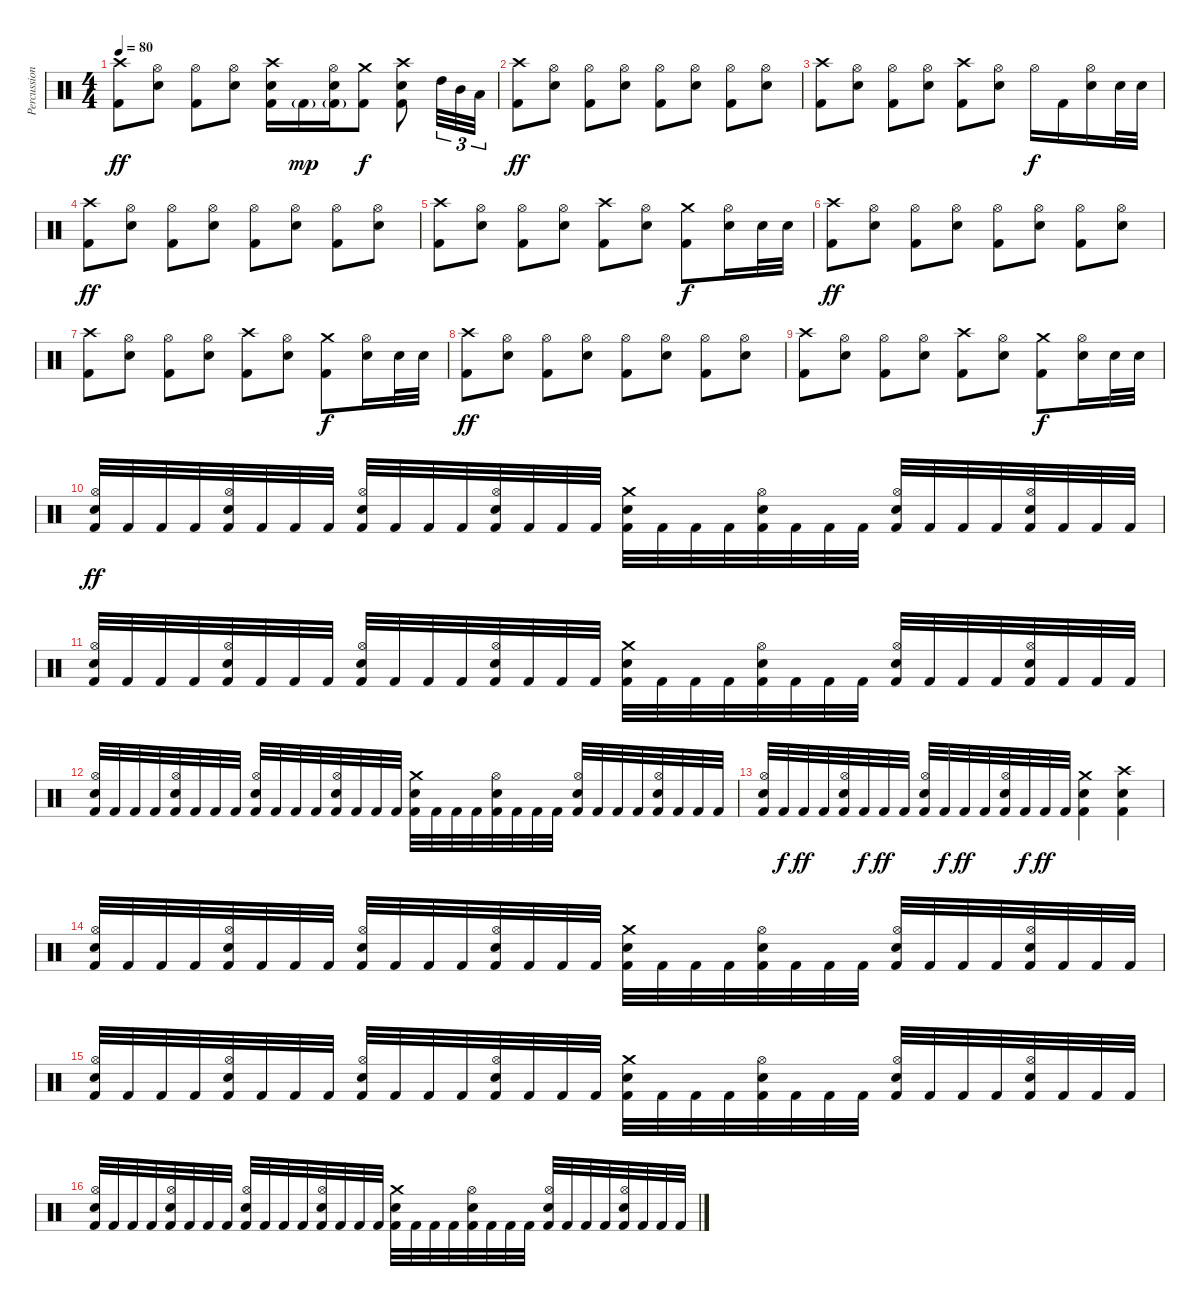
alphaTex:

\track ("Percussion" "Percussion") {instrument percussion}
\staff {score}
\articulation defaults
\ts (4 4)
\tempo 80
\clef neutral
\ks c
("Crash high (hit)" "Kick (hit) 2").8{dy ff} ("Hi-Hat (open)" "Snare (hit) 2").8 ("Hi-Hat (open)" "Kick (hit) 2").8 ("Hi-Hat (open)" "Snare (hit) 2").8 ("Crash high (hit)" "Snare (hit) 2" "Kick (hit) 2").16 "Kick (hit) 2"{g}.16{dy mp} ("Hi-Hat (open)" "Snare (hit) 2" "Kick (hit) 2"{g}).16 ("Crash medium (hit)" "Kick (hit) 2").8{dy f} ("Crash high (hit)" "Snare (hit) 2" "Kick (hit) 2").8 "High Tom (hit)".32{tu (3 2)} "Mid Tom (hit)".32{tu (3 2)} "Low Tom (hit)".32{tu (3 2)} |
("Crash high (hit)" "Kick (hit) 2").8{dy ff} ("Hi-Hat (open)" "Snare (hit) 2").8 ("Hi-Hat (open)" "Kick (hit) 2").8 ("Hi-Hat (open)" "Snare (hit) 2").8 ("Hi-Hat (open)" "Kick (hit) 2").8 ("Hi-Hat (open)" "Snare (hit) 2").8 ("Hi-Hat (open)" "Kick (hit) 2").8 ("Hi-Hat (open)" "Snare (hit) 2").8 |
("Crash high (hit)" "Kick (hit) 2").8 ("Hi-Hat (open)" "Snare (hit) 2").8 ("Hi-Hat (open)" "Kick (hit) 2").8 ("Hi-Hat (open)" "Snare (hit) 2").8 ("Crash high (hit)" "Kick (hit) 2").8 ("Hi-Hat (open)" "Snare (hit) 2").8 "Hi-Hat (open)".16{dy f} "Kick (hit) 2".16 ("Hi-Hat (open)" "Snare (hit) 2").16 "Snare (hit) 2".32 "Snare (hit) 2".32 |
("Crash high (hit)" "Kick (hit) 2").8{dy ff} ("Hi-Hat (open)" "Snare (hit) 2").8 ("Hi-Hat (open)" "Kick (hit) 2").8 ("Hi-Hat (open)" "Snare (hit) 2").8 ("Hi-Hat (open)" "Kick (hit) 2").8 ("Hi-Hat (open)" "Snare (hit) 2").8 ("Hi-Hat (open)" "Kick (hit) 2").8 ("Hi-Hat (open)" "Snare (hit) 2").8 |
("Crash high (hit)" "Kick (hit) 2").8 ("Hi-Hat (open)" "Snare (hit) 2").8 ("Hi-Hat (open)" "Kick (hit) 2").8 ("Hi-Hat (open)" "Snare (hit) 2").8 ("Crash high (hit)" "Kick (hit) 2").8 ("Hi-Hat (open)" "Snare (hit) 2").8 ("Crash medium (hit)" "Kick (hit) 2").8{dy f} ("Hi-Hat (open)" "Snare (hit) 2").16 "Snare (hit) 2".32 "Snare (hit) 2".32 |
("Crash high (hit)" "Kick (hit) 2").8{dy ff} ("Hi-Hat (open)" "Snare (hit) 2").8 ("Hi-Hat (open)" "Kick (hit) 2").8 ("Hi-Hat (open)" "Snare (hit) 2").8 ("Hi-Hat (open)" "Kick (hit) 2").8 ("Hi-Hat (open)" "Snare (hit) 2").8 ("Hi-Hat (open)" "Kick (hit) 2").8 ("Hi-Hat (open)" "Snare (hit) 2").8 |
("Crash high (hit)" "Kick (hit) 2").8 ("Hi-Hat (open)" "Snare (hit) 2").8 ("Hi-Hat (open)" "Kick (hit) 2").8 ("Hi-Hat (open)" "Snare (hit) 2").8 ("Crash high (hit)" "Kick (hit) 2").8 ("Hi-Hat (open)" "Snare (hit) 2").8 ("Crash medium (hit)" "Kick (hit) 2").8{dy f} ("Hi-Hat (open)" "Snare (hit) 2").16 "Snare (hit) 2".32 "Snare (hit) 2".32 |
("Crash high (hit)" "Kick (hit) 2").8{dy ff} ("Hi-Hat (open)" "Snare (hit) 2").8 ("Hi-Hat (open)" "Kick (hit) 2").8 ("Hi-Hat (open)" "Snare (hit) 2").8 ("Hi-Hat (open)" "Kick (hit) 2").8 ("Hi-Hat (open)" "Snare (hit) 2").8 ("Hi-Hat (open)" "Kick (hit) 2").8 ("Hi-Hat (open)" "Snare (hit) 2").8 |
("Crash high (hit)" "Kick (hit) 2").8 ("Hi-Hat (open)" "Snare (hit) 2").8 ("Hi-Hat (open)" "Kick (hit) 2").8 ("Hi-Hat (open)" "Snare (hit) 2").8 ("Crash high (hit)" "Kick (hit) 2").8 ("Hi-Hat (open)" "Snare (hit) 2").8 ("Crash medium (hit)" "Kick (hit) 2").8{dy f} ("Hi-Hat (open)" "Snare (hit) 2").16 "Snare (hit) 2".32 "Snare (hit) 2".32 |
("Hi-Hat (open)" "Snare (hit) 2" "Kick (hit) 2").32{dy ff volume 14} "Kick (hit) 2".32 "Kick (hit) 2".32 "Kick (hit) 2".32 ("Hi-Hat (open)" "Snare (hit) 2" "Kick (hit) 2").32 "Kick (hit) 2".32 "Kick (hit) 2".32 "Kick (hit) 2".32 ("Hi-Hat (open)" "Snare (hit) 2" "Kick (hit) 2").32 "Kick (hit) 2".32 "Kick (hit) 2".32 "Kick (hit) 2".32 ("Hi-Hat (open)" "Snare (hit) 2" "Kick (hit) 2").32 "Kick (hit) 2".32 "Kick (hit) 2".32 "Kick (hit) 2".32 ("Crash medium (hit)" "Snare (hit) 2" "Kick (hit) 2").32 "Kick (hit) 2".32 "Kick (hit) 2".32 "Kick (hit) 2".32 ("Hi-Hat (open)" "Snare (hit) 2" "Kick (hit) 2").32 "Kick (hit) 2".32 "Kick (hit) 2".32 "Kick (hit) 2".32 ("Hi-Hat (open)" "Snare (hit) 2" "Kick (hit) 2").32 "Kick (hit) 2".32 "Kick (hit) 2".32 "Kick (hit) 2".32 ("Hi-Hat (open)" "Snare (hit) 2" "Kick (hit) 2").32 "Kick (hit) 2".32 "Kick (hit) 2".32 "Kick (hit) 2".32 |
("Hi-Hat (open)" "Snare (hit) 2" "Kick (hit) 2").32 "Kick (hit) 2".32 "Kick (hit) 2".32 "Kick (hit) 2".32 ("Hi-Hat (open)" "Snare (hit) 2" "Kick (hit) 2").32 "Kick (hit) 2".32 "Kick (hit) 2".32 "Kick (hit) 2".32 ("Hi-Hat (open)" "Snare (hit) 2" "Kick (hit) 2").32 "Kick (hit) 2".32 "Kick (hit) 2".32 "Kick (hit) 2".32 ("Hi-Hat (open)" "Snare (hit) 2" "Kick (hit) 2").32 "Kick (hit) 2".32 "Kick (hit) 2".32 "Kick (hit) 2".32 ("Crash medium (hit)" "Snare (hit) 2" "Kick (hit) 2").32 "Kick (hit) 2".32 "Kick (hit) 2".32 "Kick (hit) 2".32 ("Hi-Hat (open)" "Snare (hit) 2" "Kick (hit) 2").32 "Kick (hit) 2".32 "Kick (hit) 2".32 "Kick (hit) 2".32 ("Hi-Hat (open)" "Snare (hit) 2" "Kick (hit) 2").32 "Kick (hit) 2".32 "Kick (hit) 2".32 "Kick (hit) 2".32 ("Hi-Hat (open)" "Snare (hit) 2" "Kick (hit) 2").32 "Kick (hit) 2".32 "Kick (hit) 2".32 "Kick (hit) 2".32 |
("Hi-Hat (open)" "Snare (hit) 2" "Kick (hit) 2").32 "Kick (hit) 2".32 "Kick (hit) 2".32 "Kick (hit) 2".32 ("Hi-Hat (open)" "Snare (hit) 2" "Kick (hit) 2").32 "Kick (hit) 2".32 "Kick (hit) 2".32 "Kick (hit) 2".32 ("Hi-Hat (open)" "Snare (hit) 2" "Kick (hit) 2").32 "Kick (hit) 2".32 "Kick (hit) 2".32 "Kick (hit) 2".32 ("Hi-Hat (open)" "Snare (hit) 2" "Kick (hit) 2").32 "Kick (hit) 2".32 "Kick (hit) 2".32 "Kick (hit) 2".32 ("Crash medium (hit)" "Snare (hit) 2" "Kick (hit) 2").32 "Kick (hit) 2".32 "Kick (hit) 2".32 "Kick (hit) 2".32 ("Hi-Hat (open)" "Snare (hit) 2" "Kick (hit) 2").32 "Kick (hit) 2".32 "Kick (hit) 2".32 "Kick (hit) 2".32 ("Hi-Hat (open)" "Snare (hit) 2" "Kick (hit) 2").32 "Kick (hit) 2".32 "Kick (hit) 2".32 "Kick (hit) 2".32 ("Hi-Hat (open)" "Snare (hit) 2" "Kick (hit) 2").32 "Kick (hit) 2".32 "Kick (hit) 2".32 "Kick (hit) 2".32 |
("Hi-Hat (open)" "Snare (hit) 2" "Kick (hit) 2").32 "Kick (hit) 2".32{dy f} "Kick (hit) 2".32{dy ff} "Kick (hit) 2".32 ("Hi-Hat (open)" "Snare (hit) 2" "Kick (hit) 2").32 "Kick (hit) 2".32{dy f} "Kick (hit) 2".32{dy ff} "Kick (hit) 2".32 ("Hi-Hat (open)" "Snare (hit) 2" "Kick (hit) 2").32 "Kick (hit) 2".32{dy f} "Kick (hit) 2".32{dy ff} "Kick (hit) 2".32 ("Hi-Hat (open)" "Snare (hit) 2" "Kick (hit) 2").32 "Kick (hit) 2".32{dy f} "Kick (hit) 2".32{dy ff} "Kick (hit) 2".32 ("Crash medium (hit)" "Snare (hit) 2" "Kick (hit) 2").4 ("Crash high (hit)" "Snare (hit) 2" "Kick (hit) 2").4 |
("Hi-Hat (open)" "Snare (hit) 2" "Kick (hit) 2").32{volume 7} "Kick (hit) 2".32 "Kick (hit) 2".32 "Kick (hit) 2".32 ("Hi-Hat (open)" "Snare (hit) 2" "Kick (hit) 2").32 "Kick (hit) 2".32 "Kick (hit) 2".32 "Kick (hit) 2".32 ("Hi-Hat (open)" "Snare (hit) 2" "Kick (hit) 2").32 "Kick (hit) 2".32 "Kick (hit) 2".32 "Kick (hit) 2".32 ("Hi-Hat (open)" "Snare (hit) 2" "Kick (hit) 2").32 "Kick (hit) 2".32 "Kick (hit) 2".32 "Kick (hit) 2".32 ("Crash medium (hit)" "Snare (hit) 2" "Kick (hit) 2").32 "Kick (hit) 2".32 "Kick (hit) 2".32 "Kick (hit) 2".32 ("Hi-Hat (open)" "Snare (hit) 2" "Kick (hit) 2").32 "Kick (hit) 2".32 "Kick (hit) 2".32 "Kick (hit) 2".32 ("Hi-Hat (open)" "Snare (hit) 2" "Kick (hit) 2").32 "Kick (hit) 2".32 "Kick (hit) 2".32 "Kick (hit) 2".32 ("Hi-Hat (open)" "Snare (hit) 2" "Kick (hit) 2").32 "Kick (hit) 2".32 "Kick (hit) 2".32 "Kick (hit) 2".32 |
("Hi-Hat (open)" "Snare (hit) 2" "Kick (hit) 2").32 "Kick (hit) 2".32 "Kick (hit) 2".32 "Kick (hit) 2".32 ("Hi-Hat (open)" "Snare (hit) 2" "Kick (hit) 2").32 "Kick (hit) 2".32 "Kick (hit) 2".32 "Kick (hit) 2".32 ("Hi-Hat (open)" "Snare (hit) 2" "Kick (hit) 2").32 "Kick (hit) 2".32 "Kick (hit) 2".32 "Kick (hit) 2".32 ("Hi-Hat (open)" "Snare (hit) 2" "Kick (hit) 2").32 "Kick (hit) 2".32 "Kick (hit) 2".32 "Kick (hit) 2".32 ("Crash medium (hit)" "Snare (hit) 2" "Kick (hit) 2").32 "Kick (hit) 2".32 "Kick (hit) 2".32 "Kick (hit) 2".32 ("Hi-Hat (open)" "Snare (hit) 2" "Kick (hit) 2").32 "Kick (hit) 2".32 "Kick (hit) 2".32 "Kick (hit) 2".32 ("Hi-Hat (open)" "Snare (hit) 2" "Kick (hit) 2").32 "Kick (hit) 2".32 "Kick (hit) 2".32 "Kick (hit) 2".32 ("Hi-Hat (open)" "Snare (hit) 2" "Kick (hit) 2").32 "Kick (hit) 2".32 "Kick (hit) 2".32 "Kick (hit) 2".32 |
("Hi-Hat (open)" "Snare (hit) 2" "Kick (hit) 2").32 "Kick (hit) 2".32 "Kick (hit) 2".32 "Kick (hit) 2".32 ("Hi-Hat (open)" "Snare (hit) 2" "Kick (hit) 2").32 "Kick (hit) 2".32 "Kick (hit) 2".32 "Kick (hit) 2".32 ("Hi-Hat (open)" "Snare (hit) 2" "Kick (hit) 2").32 "Kick (hit) 2".32 "Kick (hit) 2".32 "Kick (hit) 2".32 ("Hi-Hat (open)" "Snare (hit) 2" "Kick (hit) 2").32 "Kick (hit) 2".32 "Kick (hit) 2".32 "Kick (hit) 2".32 ("Crash medium (hit)" "Snare (hit) 2" "Kick (hit) 2").32 "Kick (hit) 2".32 "Kick (hit) 2".32 "Kick (hit) 2".32 ("Hi-Hat (open)" "Snare (hit) 2" "Kick (hit) 2").32 "Kick (hit) 2".32 "Kick (hit) 2".32 "Kick (hit) 2".32 ("Hi-Hat (open)" "Snare (hit) 2" "Kick (hit) 2").32 "Kick (hit) 2".32 "Kick (hit) 2".32 "Kick (hit) 2".32 ("Hi-Hat (open)" "Snare (hit) 2" "Kick (hit) 2").32 "Kick (hit) 2".32 "Kick (hit) 2".32 "Kick (hit) 2".32
